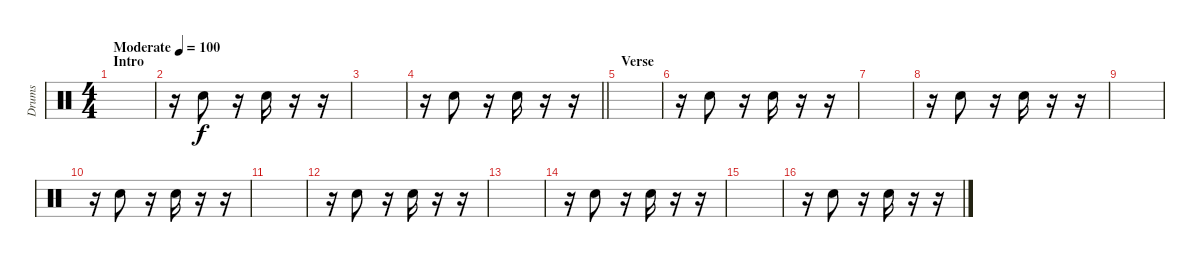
\track ("Drums" "Drums") {instrument percussion}
\staff {score}
\articulation defaults
\ts (4 4)
\section ("" "Intro")
\tempo (100 "Moderate")
\clef neutral
\ks c
|
r.16 "Electric Snare (hit)".8 r.16 "Electric Snare (hit)".16 r.16 r.16 |
|
\barLineRight lightlight
r.16 "Electric Snare (hit)".8 r.16 "Electric Snare (hit)".16 r.16 r.16 |
\section ("" "Verse")
|
r.16 "Electric Snare (hit)".8 r.16 "Electric Snare (hit)".16 r.16 r.16 |
|
r.16 "Electric Snare (hit)".8 r.16 "Electric Snare (hit)".16 r.16 r.16 |
|
r.16 "Electric Snare (hit)".8 r.16 "Electric Snare (hit)".16 r.16 r.16 |
|
r.16 "Electric Snare (hit)".8 r.16 "Electric Snare (hit)".16 r.16 r.16 |
|
r.16 "Electric Snare (hit)".8 r.16 "Electric Snare (hit)".16 r.16 r.16 |
|
r.16 "Electric Snare (hit)".8 r.16 "Electric Snare (hit)".16 r.16 r.16
